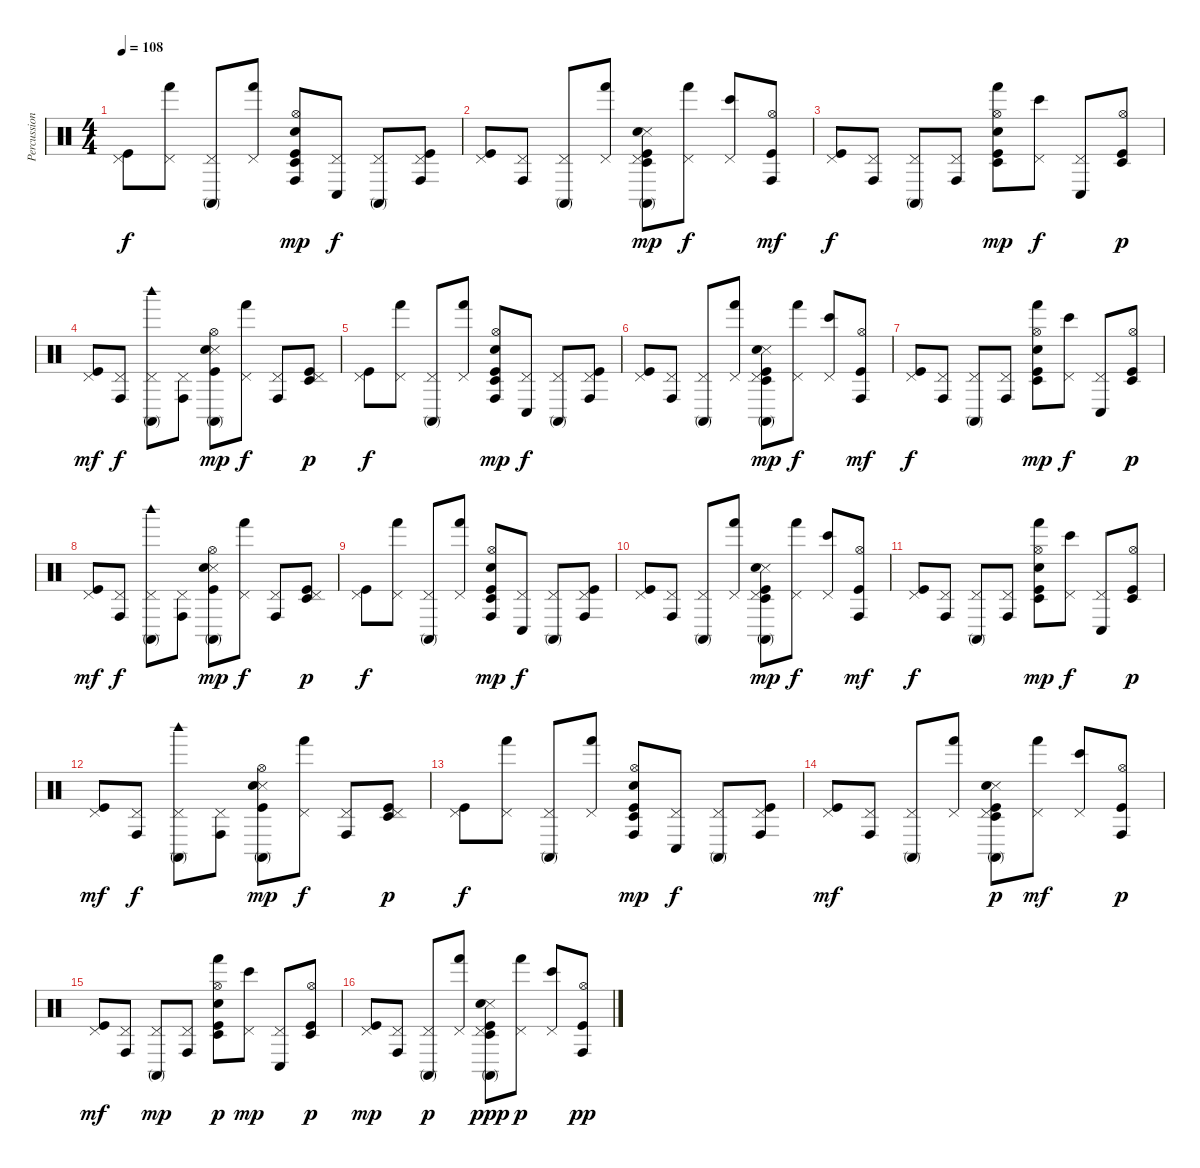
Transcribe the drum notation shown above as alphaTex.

\track ("Percussions" "Percussion") {instrument percussion}
\staff {score}
\articulation defaults
\ts (4 4)
\tempo 108
\clef neutral
\ks c
("Pedal Hi-Hat (hit)" "Kick (hit)").8{dy f} ("Pedal Hi-Hat (hit)" "Hand (hit)").8 ("Pedal Hi-Hat (hit)" "Conga high (mute)").8 ("Pedal Hi-Hat (hit)" "Hand (hit)").8 ("Hi-Hat (open)" "Conga high (hit)" "Kick (hit)" "Snare (hit) 2" "Timbale low (hit)").8{dy mp} ("Pedal Hi-Hat (hit)" "Conga low (hit)").8{dy f} ("Pedal Hi-Hat (hit)" "Conga high (mute)").8 ("Pedal Hi-Hat (hit)" "Kick (hit)" "Conga high (hit)").8 |
("Pedal Hi-Hat (hit)" "Kick (hit)").8 ("Pedal Hi-Hat (hit)" "Conga high (hit)").8 ("Pedal Hi-Hat (hit)" "Conga high (mute)").8 ("Pedal Hi-Hat (hit)" "Hand (hit)").8 ("Pedal Hi-Hat (hit)" "Conga high (mute)" "Snare (side stick) 3" "Kick (hit)" "Snare (hit) 2" "Timbale low (hit)").8{dy mp} ("Pedal Hi-Hat (hit)" "Hand (hit)").8{dy f} ("Pedal Hi-Hat (hit)" "Bongo High (hit)").8 ("Hi-Hat (open)" "Conga high (hit)" "Kick (hit)").8{dy mf} |
("Pedal Hi-Hat (hit)" "Kick (hit)").8{dy f} ("Pedal Hi-Hat (hit)" "Conga high (hit)").8 ("Pedal Hi-Hat (hit)" "Conga high (mute)").8 ("Pedal Hi-Hat (hit)" "Conga high (hit)").8 ("Hi-Hat (open)" "Hand (hit)" "Kick (hit)" "Snare (hit) 2" "Timbale low (hit)").8{dy mp} ("Pedal Hi-Hat (hit)" "Bongo High (hit)").8{dy f} ("Pedal Hi-Hat (hit)" "Conga low (hit)").8 ("Hi-Hat (open)" "Kick (hit)" "Timbale low (hit)").8{dy p} |
("Pedal Hi-Hat (hit)" "Kick (hit)").8{dy mf} ("Pedal Hi-Hat (hit)" "Conga high (hit)").8{dy f} ("Pedal Hi-Hat (hit)" "Conga high (mute)" "Woodblock high (hit)").8 ("Pedal Hi-Hat (hit)" "Conga high (hit)").8 ("Hi-Hat (open)" "Snare (side stick) 3" "Kick (hit)" "Conga high (mute)" "Snare (hit) 2").8{dy mp} ("Pedal Hi-Hat (hit)" "Hand (hit)").8{dy f} ("Pedal Hi-Hat (hit)" "Conga high (hit)").8 ("Pedal Hi-Hat (hit)" "Kick (hit)" "Timbale low (hit)").8{dy p} |
("Pedal Hi-Hat (hit)" "Kick (hit)").8{dy f} ("Pedal Hi-Hat (hit)" "Hand (hit)").8 ("Pedal Hi-Hat (hit)" "Conga high (mute)").8 ("Pedal Hi-Hat (hit)" "Hand (hit)").8 ("Hi-Hat (open)" "Conga high (hit)" "Kick (hit)" "Snare (hit) 2" "Timbale low (hit)").8{dy mp} ("Pedal Hi-Hat (hit)" "Conga low (hit)").8{dy f} ("Pedal Hi-Hat (hit)" "Conga high (mute)").8 ("Pedal Hi-Hat (hit)" "Kick (hit)" "Conga high (hit)").8 |
("Pedal Hi-Hat (hit)" "Kick (hit)").8 ("Pedal Hi-Hat (hit)" "Conga high (hit)").8 ("Pedal Hi-Hat (hit)" "Conga high (mute)").8 ("Pedal Hi-Hat (hit)" "Hand (hit)").8 ("Pedal Hi-Hat (hit)" "Conga high (mute)" "Snare (side stick) 3" "Kick (hit)" "Snare (hit) 2" "Timbale low (hit)").8{dy mp} ("Pedal Hi-Hat (hit)" "Hand (hit)").8{dy f} ("Pedal Hi-Hat (hit)" "Bongo High (hit)").8 ("Hi-Hat (open)" "Conga high (hit)" "Kick (hit)").8{dy mf} |
("Pedal Hi-Hat (hit)" "Kick (hit)").8{dy f} ("Pedal Hi-Hat (hit)" "Conga high (hit)").8 ("Pedal Hi-Hat (hit)" "Conga high (mute)").8 ("Pedal Hi-Hat (hit)" "Conga high (hit)").8 ("Hi-Hat (open)" "Hand (hit)" "Kick (hit)" "Snare (hit) 2" "Timbale low (hit)").8{dy mp} ("Pedal Hi-Hat (hit)" "Bongo High (hit)").8{dy f} ("Pedal Hi-Hat (hit)" "Conga low (hit)").8 ("Hi-Hat (open)" "Kick (hit)" "Timbale low (hit)").8{dy p} |
("Pedal Hi-Hat (hit)" "Kick (hit)").8{dy mf} ("Pedal Hi-Hat (hit)" "Conga high (hit)").8{dy f} ("Pedal Hi-Hat (hit)" "Conga high (mute)" "Woodblock high (hit)").8 ("Pedal Hi-Hat (hit)" "Conga high (hit)").8 ("Hi-Hat (open)" "Snare (side stick) 3" "Kick (hit)" "Conga high (mute)" "Snare (hit) 2").8{dy mp} ("Pedal Hi-Hat (hit)" "Hand (hit)").8{dy f} ("Pedal Hi-Hat (hit)" "Conga high (hit)").8 ("Pedal Hi-Hat (hit)" "Kick (hit)" "Timbale low (hit)").8{dy p} |
("Pedal Hi-Hat (hit)" "Kick (hit)").8{dy f} ("Pedal Hi-Hat (hit)" "Hand (hit)").8 ("Pedal Hi-Hat (hit)" "Conga high (mute)").8 ("Pedal Hi-Hat (hit)" "Hand (hit)").8 ("Hi-Hat (open)" "Conga high (hit)" "Kick (hit)" "Snare (hit) 2" "Timbale low (hit)").8{dy mp} ("Pedal Hi-Hat (hit)" "Conga low (hit)").8{dy f} ("Pedal Hi-Hat (hit)" "Conga high (mute)").8 ("Pedal Hi-Hat (hit)" "Kick (hit)" "Conga high (hit)").8 |
("Pedal Hi-Hat (hit)" "Kick (hit)").8 ("Pedal Hi-Hat (hit)" "Conga high (hit)").8 ("Pedal Hi-Hat (hit)" "Conga high (mute)").8 ("Pedal Hi-Hat (hit)" "Hand (hit)").8 ("Pedal Hi-Hat (hit)" "Conga high (mute)" "Snare (side stick) 3" "Kick (hit)" "Snare (hit) 2" "Timbale low (hit)").8{dy mp} ("Pedal Hi-Hat (hit)" "Hand (hit)").8{dy f} ("Pedal Hi-Hat (hit)" "Bongo High (hit)").8 ("Hi-Hat (open)" "Conga high (hit)" "Kick (hit)").8{dy mf} |
("Pedal Hi-Hat (hit)" "Kick (hit)").8{dy f} ("Pedal Hi-Hat (hit)" "Conga high (hit)").8 ("Pedal Hi-Hat (hit)" "Conga high (mute)").8 ("Pedal Hi-Hat (hit)" "Conga high (hit)").8 ("Hi-Hat (open)" "Hand (hit)" "Kick (hit)" "Snare (hit) 2" "Timbale low (hit)").8{dy mp} ("Pedal Hi-Hat (hit)" "Bongo High (hit)").8{dy f} ("Pedal Hi-Hat (hit)" "Conga low (hit)").8 ("Hi-Hat (open)" "Kick (hit)" "Timbale low (hit)").8{dy p} |
("Pedal Hi-Hat (hit)" "Kick (hit)").8{dy mf} ("Pedal Hi-Hat (hit)" "Conga high (hit)").8{dy f} ("Pedal Hi-Hat (hit)" "Conga high (mute)" "Woodblock high (hit)").8 ("Pedal Hi-Hat (hit)" "Conga high (hit)").8 ("Hi-Hat (open)" "Snare (side stick) 3" "Kick (hit)" "Conga high (mute)" "Snare (hit) 2").8{dy mp} ("Pedal Hi-Hat (hit)" "Hand (hit)").8{dy f} ("Pedal Hi-Hat (hit)" "Conga high (hit)").8 ("Pedal Hi-Hat (hit)" "Kick (hit)" "Timbale low (hit)").8{dy p} |
("Pedal Hi-Hat (hit)" "Kick (hit)").8{dy f} ("Pedal Hi-Hat (hit)" "Hand (hit)").8 ("Pedal Hi-Hat (hit)" "Conga high (mute)").8 ("Pedal Hi-Hat (hit)" "Hand (hit)").8 ("Hi-Hat (open)" "Conga high (hit)" "Kick (hit)" "Snare (hit) 2" "Timbale low (hit)").8{dy mp} ("Pedal Hi-Hat (hit)" "Conga low (hit)").8{dy f} ("Pedal Hi-Hat (hit)" "Conga high (mute)").8 ("Pedal Hi-Hat (hit)" "Kick (hit)" "Conga high (hit)").8 |
("Pedal Hi-Hat (hit)" "Kick (hit)").8{dy mf} ("Pedal Hi-Hat (hit)" "Conga high (hit)").8 ("Pedal Hi-Hat (hit)" "Conga high (mute)").8 ("Pedal Hi-Hat (hit)" "Hand (hit)").8 ("Pedal Hi-Hat (hit)" "Conga high (mute)" "Snare (side stick) 3" "Kick (hit)" "Snare (hit) 2" "Timbale low (hit)").8{dy p} ("Pedal Hi-Hat (hit)" "Hand (hit)").8{dy mf} ("Pedal Hi-Hat (hit)" "Bongo High (hit)").8 ("Hi-Hat (open)" "Conga high (hit)" "Kick (hit)").8{dy p} |
("Pedal Hi-Hat (hit)" "Kick (hit)").8{dy mf volume 3} ("Pedal Hi-Hat (hit)" "Conga high (hit)").8 ("Pedal Hi-Hat (hit)" "Conga high (mute)").8{dy mp} ("Pedal Hi-Hat (hit)" "Conga high (hit)").8 ("Hi-Hat (open)" "Hand (hit)" "Kick (hit)" "Snare (hit) 2" "Timbale low (hit)").8{dy p} ("Pedal Hi-Hat (hit)" "Bongo High (hit)").8{dy mp} ("Pedal Hi-Hat (hit)" "Conga low (hit)").8 ("Hi-Hat (open)" "Kick (hit)" "Timbale low (hit)").8{dy p} |
("Pedal Hi-Hat (hit)" "Kick (hit)").8{dy mp} ("Pedal Hi-Hat (hit)" "Conga high (hit)").8 ("Pedal Hi-Hat (hit)" "Conga high (mute)").8{dy p} ("Pedal Hi-Hat (hit)" "Hand (hit)").8 ("Pedal Hi-Hat (hit)" "Conga high (mute)" "Snare (side stick) 3" "Kick (hit)" "Snare (hit) 2" "Timbale low (hit)").8{dy ppp} ("Pedal Hi-Hat (hit)" "Hand (hit)").8{dy p} ("Pedal Hi-Hat (hit)" "Bongo High (hit)").8 ("Hi-Hat (open)" "Conga high (hit)" "Kick (hit)").8{dy pp}
